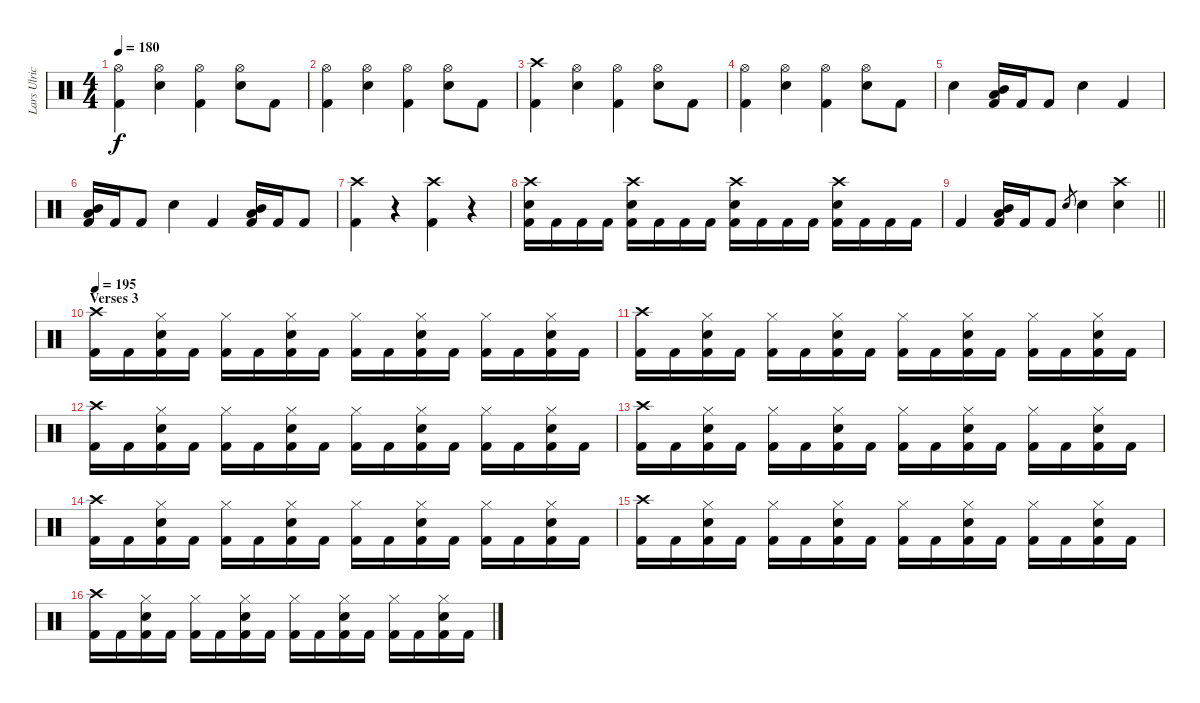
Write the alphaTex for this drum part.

\track ("Lars Ulrich" "Lars Ulric") {instrument percussion}
\staff {score}
\articulation defaults
\ts (4 4)
\tempo 180
\clef neutral
\ks c
("Hi-Hat (open)" "Kick (hit) 2").4{dy f} ("Hi-Hat (open)" "Electric Snare (hit)").4 ("Hi-Hat (open)" "Kick (hit) 2").4 ("Hi-Hat (open)" "Electric Snare (hit)").8 "Kick (hit) 2".8 |
("Hi-Hat (open)" "Kick (hit) 2").4 ("Hi-Hat (open)" "Electric Snare (hit)").4 ("Hi-Hat (open)" "Kick (hit) 2").4 ("Hi-Hat (open)" "Electric Snare (hit)").8 "Kick (hit) 2".8 |
("Crash high (hit)" "Kick (hit) 2").4 ("Hi-Hat (open)" "Electric Snare (hit)").4 ("Hi-Hat (open)" "Kick (hit) 2").4 ("Hi-Hat (open)" "Electric Snare (hit)").8 "Kick (hit) 2".8 |
("Hi-Hat (open)" "Kick (hit) 2").4 ("Hi-Hat (open)" "Electric Snare (hit)").4 ("Hi-Hat (open)" "Kick (hit) 2").4 ("Hi-Hat (open)" "Electric Snare (hit)").8 "Kick (hit) 2".8 |
"Electric Snare (hit)".4 ("Mid Tom (hit)" "Low Tom (hit)" "Kick (hit) 2").16 "Kick (hit) 2".16 "Kick (hit) 2".8 "Electric Snare (hit)".4 "Kick (hit) 2".4 |
("Mid Tom (hit)" "Low Tom (hit)" "Kick (hit) 2").16 "Kick (hit) 2".16 "Kick (hit) 2".8 "Electric Snare (hit)".4 "Kick (hit) 2".4 ("Mid Tom (hit)" "Low Tom (hit)" "Kick (hit) 2").16 "Kick (hit) 2".16 "Kick (hit) 2".8 |
("Crash high (hit)" "Kick (hit) 2").4 r.4{volume 0} ("Crash high (hit)" "Kick (hit) 2").4{volume 14} r.4{volume 0} |
("Crash high (hit)" "Electric Snare (hit)" "Kick (hit) 2").16{volume 14} "Kick (hit) 2".16 "Kick (hit) 2".16 "Kick (hit) 2".16 ("Crash high (hit)" "Electric Snare (hit)" "Kick (hit) 2").16 "Kick (hit) 2".16 "Kick (hit) 2".16 "Kick (hit) 2".16 ("Crash high (hit)" "Electric Snare (hit)" "Kick (hit) 2").16 "Kick (hit) 2".16 "Kick (hit) 2".16 "Kick (hit) 2".16 ("Crash high (hit)" "Electric Snare (hit)" "Kick (hit) 2").16 "Kick (hit) 2".16 "Kick (hit) 2".16 "Kick (hit) 2".16 |
\barLineRight lightlight "Kick (hit) 2".4
("Mid Tom (hit)" "Low Tom (hit)" "Kick (hit) 2").16 "Kick (hit) 2".16 "Kick (hit) 2".8 "Electric Snare (hit)".8{gr} "Electric Snare (hit)".4 ("Crash high (hit)" "Electric Snare (hit)").4 |
\section ("" "Verses 3")
\tempo 195
("Crash high (hit)" "Kick (hit) 2").16 "Kick (hit) 2".16 ("Hi-Hat (closed)" "Electric Snare (hit)" "Kick (hit) 2").16 "Kick (hit) 2".16 ("Hi-Hat (closed)" "Kick (hit) 2").16 "Kick (hit) 2".16 ("Hi-Hat (closed)" "Electric Snare (hit)" "Kick (hit) 2").16 "Kick (hit) 2".16 ("Hi-Hat (closed)" "Kick (hit) 2").16 "Kick (hit) 2".16 ("Hi-Hat (closed)" "Electric Snare (hit)" "Kick (hit) 2").16 "Kick (hit) 2".16 ("Hi-Hat (closed)" "Kick (hit) 2").16 "Kick (hit) 2".16 ("Hi-Hat (closed)" "Electric Snare (hit)" "Kick (hit) 2").16 "Kick (hit) 2".16 |
("Crash high (hit)" "Kick (hit) 2").16 "Kick (hit) 2".16 ("Hi-Hat (closed)" "Electric Snare (hit)" "Kick (hit) 2").16 "Kick (hit) 2".16 ("Hi-Hat (closed)" "Kick (hit) 2").16 "Kick (hit) 2".16 ("Hi-Hat (closed)" "Electric Snare (hit)" "Kick (hit) 2").16 "Kick (hit) 2".16 ("Hi-Hat (closed)" "Kick (hit) 2").16 "Kick (hit) 2".16 ("Hi-Hat (closed)" "Electric Snare (hit)" "Kick (hit) 2").16 "Kick (hit) 2".16 ("Hi-Hat (closed)" "Kick (hit) 2").16 "Kick (hit) 2".16 ("Hi-Hat (closed)" "Electric Snare (hit)" "Kick (hit) 2").16 "Kick (hit) 2".16 |
("Crash high (hit)" "Kick (hit) 2").16 "Kick (hit) 2".16 ("Hi-Hat (closed)" "Electric Snare (hit)" "Kick (hit) 2").16 "Kick (hit) 2".16 ("Hi-Hat (closed)" "Kick (hit) 2").16 "Kick (hit) 2".16 ("Hi-Hat (closed)" "Electric Snare (hit)" "Kick (hit) 2").16 "Kick (hit) 2".16 ("Hi-Hat (closed)" "Kick (hit) 2").16 "Kick (hit) 2".16 ("Hi-Hat (closed)" "Electric Snare (hit)" "Kick (hit) 2").16 "Kick (hit) 2".16 ("Hi-Hat (closed)" "Kick (hit) 2").16 "Kick (hit) 2".16 ("Hi-Hat (closed)" "Electric Snare (hit)" "Kick (hit) 2").16 "Kick (hit) 2".16 |
("Crash high (hit)" "Kick (hit) 2").16 "Kick (hit) 2".16 ("Hi-Hat (closed)" "Electric Snare (hit)" "Kick (hit) 2").16 "Kick (hit) 2".16 ("Hi-Hat (closed)" "Kick (hit) 2").16 "Kick (hit) 2".16 ("Hi-Hat (closed)" "Electric Snare (hit)" "Kick (hit) 2").16 "Kick (hit) 2".16 ("Hi-Hat (closed)" "Kick (hit) 2").16 "Kick (hit) 2".16 ("Hi-Hat (closed)" "Electric Snare (hit)" "Kick (hit) 2").16 "Kick (hit) 2".16 ("Hi-Hat (closed)" "Kick (hit) 2").16 "Kick (hit) 2".16 ("Hi-Hat (closed)" "Electric Snare (hit)" "Kick (hit) 2").16 "Kick (hit) 2".16 |
("Crash high (hit)" "Kick (hit) 2").16 "Kick (hit) 2".16 ("Hi-Hat (closed)" "Electric Snare (hit)" "Kick (hit) 2").16 "Kick (hit) 2".16 ("Hi-Hat (closed)" "Kick (hit) 2").16 "Kick (hit) 2".16 ("Hi-Hat (closed)" "Electric Snare (hit)" "Kick (hit) 2").16 "Kick (hit) 2".16 ("Hi-Hat (closed)" "Kick (hit) 2").16 "Kick (hit) 2".16 ("Hi-Hat (closed)" "Electric Snare (hit)" "Kick (hit) 2").16 "Kick (hit) 2".16 ("Hi-Hat (closed)" "Kick (hit) 2").16 "Kick (hit) 2".16 ("Hi-Hat (closed)" "Electric Snare (hit)" "Kick (hit) 2").16 "Kick (hit) 2".16 |
("Crash high (hit)" "Kick (hit) 2").16 "Kick (hit) 2".16 ("Hi-Hat (closed)" "Electric Snare (hit)" "Kick (hit) 2").16 "Kick (hit) 2".16 ("Hi-Hat (closed)" "Kick (hit) 2").16 "Kick (hit) 2".16 ("Hi-Hat (closed)" "Electric Snare (hit)" "Kick (hit) 2").16 "Kick (hit) 2".16 ("Hi-Hat (closed)" "Kick (hit) 2").16 "Kick (hit) 2".16 ("Hi-Hat (closed)" "Electric Snare (hit)" "Kick (hit) 2").16 "Kick (hit) 2".16 ("Hi-Hat (closed)" "Kick (hit) 2").16 "Kick (hit) 2".16 ("Hi-Hat (closed)" "Electric Snare (hit)" "Kick (hit) 2").16 "Kick (hit) 2".16 |
("Crash high (hit)" "Kick (hit) 2").16 "Kick (hit) 2".16 ("Hi-Hat (closed)" "Electric Snare (hit)" "Kick (hit) 2").16 "Kick (hit) 2".16 ("Hi-Hat (closed)" "Kick (hit) 2").16 "Kick (hit) 2".16 ("Hi-Hat (closed)" "Electric Snare (hit)" "Kick (hit) 2").16 "Kick (hit) 2".16 ("Hi-Hat (closed)" "Kick (hit) 2").16 "Kick (hit) 2".16 ("Hi-Hat (closed)" "Electric Snare (hit)" "Kick (hit) 2").16 "Kick (hit) 2".16 ("Hi-Hat (closed)" "Kick (hit) 2").16 "Kick (hit) 2".16 ("Hi-Hat (closed)" "Electric Snare (hit)" "Kick (hit) 2").16 "Kick (hit) 2".16
